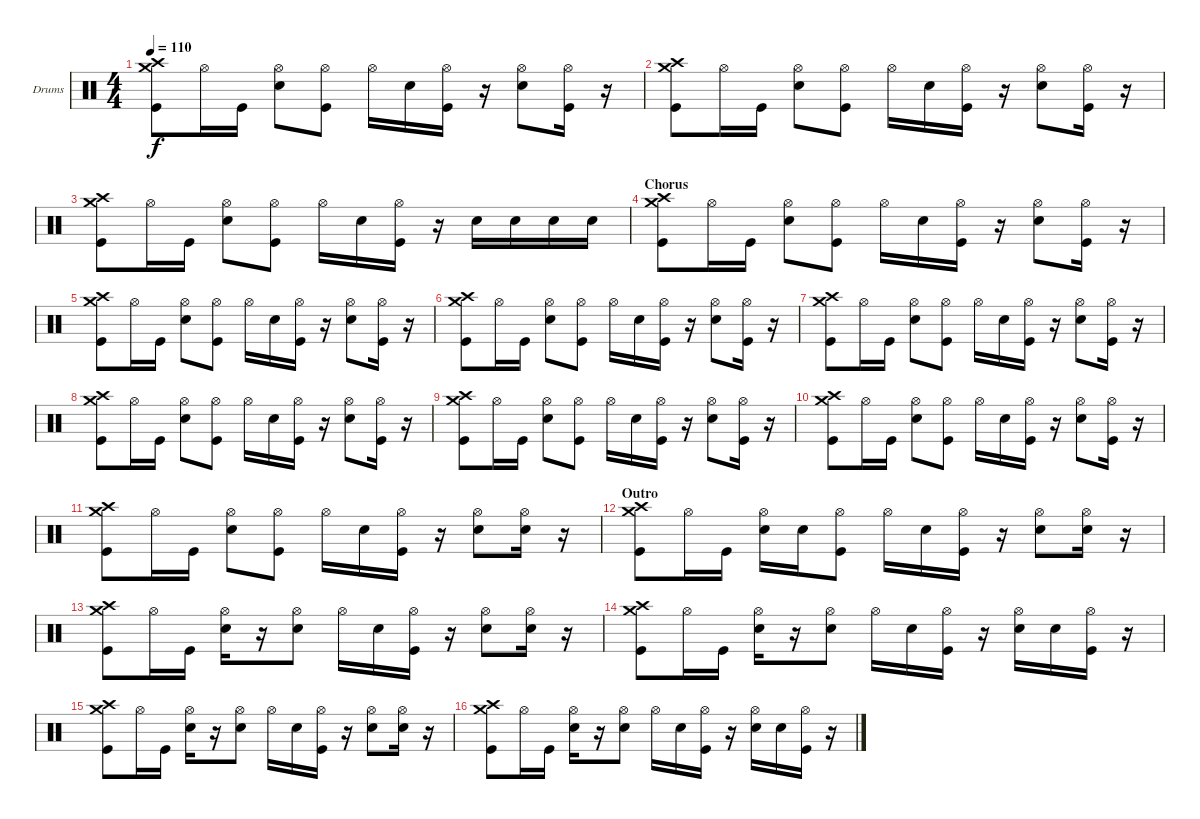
\defaultSystemsLayout 4
\bracketExtendMode nobrackets
\firstSystemTrackNameOrientation horizontal
\otherSystemsTrackNameOrientation horizontal
\track ("Dave Abbruzzese" "Drums") {solo instrument percussion}
\staff {score}
\articulation defaults
\ts (4 4)
\tempo 110
\clef neutral
\ks c
("Crash high (hit)" "Kick (hit)" "Crash medium (hit)").8{dy f} "Hi-Hat (open)".16 "Kick (hit)".16 ("Snare (hit) 2" "Hi-Hat (open)").8 ("Kick (hit)" "Hi-Hat (open)").8 "Hi-Hat (open)".16 "Snare (hit) 2".16 ("Kick (hit)" "Hi-Hat (open)").16 r.16 ("Snare (hit) 2" "Hi-Hat (open)").8 ("Kick (hit)" "Hi-Hat (open)").16 r.16 |
("Crash high (hit)" "Kick (hit)" "Crash medium (hit)").8 "Hi-Hat (open)".16 "Kick (hit)".16 ("Snare (hit) 2" "Hi-Hat (open)").8 ("Kick (hit)" "Hi-Hat (open)").8 "Hi-Hat (open)".16 "Snare (hit) 2".16 ("Kick (hit)" "Hi-Hat (open)").16 r.16 ("Snare (hit) 2" "Hi-Hat (open)").8 ("Kick (hit)" "Hi-Hat (open)").16 r.16 |
("Crash high (hit)" "Kick (hit)" "Crash medium (hit)").8 "Hi-Hat (open)".16 "Kick (hit)".16 ("Snare (hit) 2" "Hi-Hat (open)").8 ("Kick (hit)" "Hi-Hat (open)").8 "Hi-Hat (open)".16 "Snare (hit) 2".16 ("Kick (hit)" "Hi-Hat (open)").16 r.16 "Snare (hit) 2".16 "Snare (hit) 2".16 "Snare (hit) 2".16 "Snare (hit) 2".16 |
\section ("" "Chorus")
("Crash high (hit)" "Kick (hit)" "Crash medium (hit)").8 "Hi-Hat (open)".16 "Kick (hit)".16 ("Snare (hit) 2" "Hi-Hat (open)").8 ("Kick (hit)" "Hi-Hat (open)").8 "Hi-Hat (open)".16 "Snare (hit) 2".16 ("Kick (hit)" "Hi-Hat (open)").16 r.16 ("Snare (hit) 2" "Hi-Hat (open)").8 ("Kick (hit)" "Hi-Hat (open)").16 r.16 |
("Crash high (hit)" "Kick (hit)" "Crash medium (hit)").8 "Hi-Hat (open)".16 "Kick (hit)".16 ("Snare (hit) 2" "Hi-Hat (open)").8 ("Kick (hit)" "Hi-Hat (open)").8 "Hi-Hat (open)".16 "Snare (hit) 2".16 ("Kick (hit)" "Hi-Hat (open)").16 r.16 ("Snare (hit) 2" "Hi-Hat (open)").8 ("Kick (hit)" "Hi-Hat (open)").16 r.16 |
("Crash high (hit)" "Kick (hit)" "Crash medium (hit)").8 "Hi-Hat (open)".16 "Kick (hit)".16 ("Snare (hit) 2" "Hi-Hat (open)").8 ("Kick (hit)" "Hi-Hat (open)").8 "Hi-Hat (open)".16 "Snare (hit) 2".16 ("Kick (hit)" "Hi-Hat (open)").16 r.16 ("Snare (hit) 2" "Hi-Hat (open)").8 ("Kick (hit)" "Hi-Hat (open)").16 r.16 |
("Crash high (hit)" "Kick (hit)" "Crash medium (hit)").8 "Hi-Hat (open)".16 "Kick (hit)".16 ("Snare (hit) 2" "Hi-Hat (open)").8 ("Kick (hit)" "Hi-Hat (open)").8 "Hi-Hat (open)".16 "Snare (hit) 2".16 ("Kick (hit)" "Hi-Hat (open)").16 r.16 ("Snare (hit) 2" "Hi-Hat (open)").8 ("Kick (hit)" "Hi-Hat (open)").16 r.16 |
("Crash high (hit)" "Kick (hit)" "Crash medium (hit)").8 "Hi-Hat (open)".16 "Kick (hit)".16 ("Snare (hit) 2" "Hi-Hat (open)").8 ("Kick (hit)" "Hi-Hat (open)").8 "Hi-Hat (open)".16 "Snare (hit) 2".16 ("Kick (hit)" "Hi-Hat (open)").16 r.16 ("Snare (hit) 2" "Hi-Hat (open)").8 ("Kick (hit)" "Hi-Hat (open)").16 r.16 |
("Crash high (hit)" "Kick (hit)" "Crash medium (hit)").8 "Hi-Hat (open)".16 "Kick (hit)".16 ("Snare (hit) 2" "Hi-Hat (open)").8 ("Kick (hit)" "Hi-Hat (open)").8 "Hi-Hat (open)".16 "Snare (hit) 2".16 ("Kick (hit)" "Hi-Hat (open)").16 r.16 ("Snare (hit) 2" "Hi-Hat (open)").8 ("Kick (hit)" "Hi-Hat (open)").16 r.16 |
("Crash high (hit)" "Kick (hit)" "Crash medium (hit)").8 "Hi-Hat (open)".16 "Kick (hit)".16 ("Snare (hit) 2" "Hi-Hat (open)").8 ("Kick (hit)" "Hi-Hat (open)").8 "Hi-Hat (open)".16 "Snare (hit) 2".16 ("Kick (hit)" "Hi-Hat (open)").16 r.16 ("Snare (hit) 2" "Hi-Hat (open)").8 ("Kick (hit)" "Hi-Hat (open)").16 r.16 |
("Crash high (hit)" "Kick (hit)" "Crash medium (hit)").8 "Hi-Hat (open)".16 "Kick (hit)".16 ("Snare (hit) 2" "Hi-Hat (open)").8 ("Kick (hit)" "Hi-Hat (open)").8 "Hi-Hat (open)".16 "Snare (hit) 2".16 ("Kick (hit)" "Hi-Hat (open)").16 r.16 ("Snare (hit) 2" "Hi-Hat (open)").8 ("Snare (hit) 2" "Hi-Hat (open)").16 r.16 |
\section ("" "Outro")
("Crash high (hit)" "Kick (hit)" "Crash medium (hit)").8 "Hi-Hat (open)".16 "Kick (hit)".16 ("Snare (hit) 2" "Hi-Hat (open)").16 "Snare (hit) 2".16 ("Kick (hit)" "Hi-Hat (open)").8 "Hi-Hat (open)".16 "Snare (hit) 2".16 ("Kick (hit)" "Hi-Hat (open)").16 r.16 ("Snare (hit) 2" "Hi-Hat (open)").8 ("Snare (hit) 2" "Hi-Hat (open)").16 r.16 |
("Crash high (hit)" "Kick (hit)" "Crash medium (hit)").8 "Hi-Hat (open)".16 "Kick (hit)".16 ("Snare (hit) 2" "Hi-Hat (open)").16 r.16 ("Snare (hit) 2" "Hi-Hat (open)").8 "Hi-Hat (open)".16 "Snare (hit) 2".16 ("Kick (hit)" "Hi-Hat (open)").16 r.16 ("Snare (hit) 2" "Hi-Hat (open)").8 ("Snare (hit) 2" "Hi-Hat (open)").16 r.16 |
("Crash high (hit)" "Kick (hit)" "Crash medium (hit)").8 "Hi-Hat (open)".16 "Kick (hit)".16 ("Snare (hit) 2" "Hi-Hat (open)").16 r.16 ("Snare (hit) 2" "Hi-Hat (open)").8 "Hi-Hat (open)".16 "Snare (hit) 2".16 ("Kick (hit)" "Hi-Hat (open)").16 r.16 ("Snare (hit) 2" "Hi-Hat (open)").16 "Snare (hit) 2".16 ("Kick (hit)" "Hi-Hat (open)").16 r.16 |
("Crash high (hit)" "Kick (hit)" "Crash medium (hit)").8 "Hi-Hat (open)".16 "Kick (hit)".16 ("Snare (hit) 2" "Hi-Hat (open)").16 r.16 ("Snare (hit) 2" "Hi-Hat (open)").8 "Hi-Hat (open)".16 "Snare (hit) 2".16 ("Kick (hit)" "Hi-Hat (open)").16 r.16 ("Snare (hit) 2" "Hi-Hat (open)").8 ("Snare (hit) 2" "Hi-Hat (open)").16 r.16 |
("Crash high (hit)" "Kick (hit)" "Crash medium (hit)").8 "Hi-Hat (open)".16 "Kick (hit)".16 ("Snare (hit) 2" "Hi-Hat (open)").16 r.16 ("Snare (hit) 2" "Hi-Hat (open)").8 "Hi-Hat (open)".16 "Snare (hit) 2".16 ("Kick (hit)" "Hi-Hat (open)").16 r.16 ("Snare (hit) 2" "Hi-Hat (open)").16 "Snare (hit) 2".16 ("Kick (hit)" "Hi-Hat (open)").16 r.16
